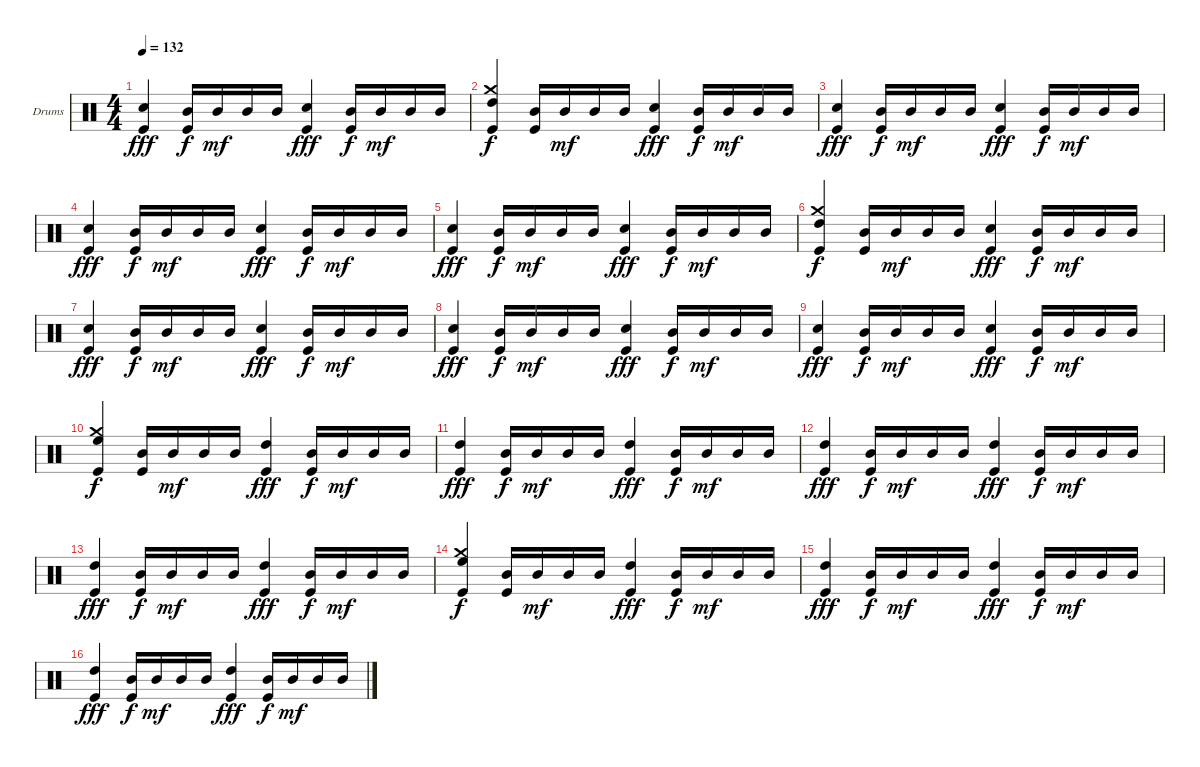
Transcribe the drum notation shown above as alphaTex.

\bracketExtendMode groupsimilarinstruments
\firstSystemTrackNameOrientation horizontal
\otherSystemsTrackNameOrientation horizontal
\track ("Larry" "Drums") {instrument percussion}
\staff {score}
\articulation defaults
\ts (4 4)
\tempo 132
\clef neutral
\ks c
("Snare (hit) 2" "Kick (hit)").4{dy fff} ("Mid Tom (hit)" "Kick (hit)").16{dy f} "Mid Tom (hit)".16{dy mf} "Mid Tom (hit)".16 "Mid Tom (hit)".16 ("Snare (hit) 2" "Kick (hit)").4{dy fff} ("Mid Tom (hit)" "Kick (hit)").16{dy f} "Mid Tom (hit)".16{dy mf} "Mid Tom (hit)".16 "Mid Tom (hit)".16 |
("Crash medium (hit)" "High Tom (hit)" "Kick (hit)").4{dy f} ("Mid Tom (hit)" "Kick (hit)").16 "Mid Tom (hit)".16{dy mf} "Mid Tom (hit)".16 "Mid Tom (hit)".16 ("Snare (hit) 2" "Kick (hit)").4{dy fff} ("Mid Tom (hit)" "Kick (hit)").16{dy f} "Mid Tom (hit)".16{dy mf} "Mid Tom (hit)".16 "Mid Tom (hit)".16 |
("Snare (hit) 2" "Kick (hit)").4{dy fff} ("Mid Tom (hit)" "Kick (hit)").16{dy f} "Mid Tom (hit)".16{dy mf} "Mid Tom (hit)".16 "Mid Tom (hit)".16 ("Snare (hit) 2" "Kick (hit)").4{dy fff} ("Mid Tom (hit)" "Kick (hit)").16{dy f} "Mid Tom (hit)".16{dy mf} "Mid Tom (hit)".16 "Mid Tom (hit)".16 |
("Snare (hit) 2" "Kick (hit)").4{dy fff} ("Mid Tom (hit)" "Kick (hit)").16{dy f} "Mid Tom (hit)".16{dy mf} "Mid Tom (hit)".16 "Mid Tom (hit)".16 ("Snare (hit) 2" "Kick (hit)").4{dy fff} ("Mid Tom (hit)" "Kick (hit)").16{dy f} "Mid Tom (hit)".16{dy mf} "Mid Tom (hit)".16 "Mid Tom (hit)".16 |
("Snare (hit) 2" "Kick (hit)").4{dy fff} ("Mid Tom (hit)" "Kick (hit)").16{dy f} "Mid Tom (hit)".16{dy mf} "Mid Tom (hit)".16 "Mid Tom (hit)".16 ("Snare (hit) 2" "Kick (hit)").4{dy fff} ("Mid Tom (hit)" "Kick (hit)").16{dy f} "Mid Tom (hit)".16{dy mf} "Mid Tom (hit)".16 "Mid Tom (hit)".16 |
("Crash medium (hit)" "High Tom (hit)" "Kick (hit)").4{dy f} ("Mid Tom (hit)" "Kick (hit)").16 "Mid Tom (hit)".16{dy mf} "Mid Tom (hit)".16 "Mid Tom (hit)".16 ("Snare (hit) 2" "Kick (hit)").4{dy fff} ("Mid Tom (hit)" "Kick (hit)").16{dy f} "Mid Tom (hit)".16{dy mf} "Mid Tom (hit)".16 "Mid Tom (hit)".16 |
("Snare (hit) 2" "Kick (hit)").4{dy fff} ("Mid Tom (hit)" "Kick (hit)").16{dy f} "Mid Tom (hit)".16{dy mf} "Mid Tom (hit)".16 "Mid Tom (hit)".16 ("Snare (hit) 2" "Kick (hit)").4{dy fff} ("Mid Tom (hit)" "Kick (hit)").16{dy f} "Mid Tom (hit)".16{dy mf} "Mid Tom (hit)".16 "Mid Tom (hit)".16 |
("Snare (hit) 2" "Kick (hit)").4{dy fff} ("Mid Tom (hit)" "Kick (hit)").16{dy f} "Mid Tom (hit)".16{dy mf} "Mid Tom (hit)".16 "Mid Tom (hit)".16 ("Snare (hit) 2" "Kick (hit)").4{dy fff} ("Mid Tom (hit)" "Kick (hit)").16{dy f} "Mid Tom (hit)".16{dy mf} "Mid Tom (hit)".16 "Mid Tom (hit)".16 |
("Snare (hit) 2" "Kick (hit)").4{dy fff} ("Mid Tom (hit)" "Kick (hit)").16{dy f} "Mid Tom (hit)".16{dy mf} "Mid Tom (hit)".16 "Mid Tom (hit)".16 ("Snare (hit) 2" "Kick (hit)").4{dy fff} ("Mid Tom (hit)" "Kick (hit)").16{dy f} "Mid Tom (hit)".16{dy mf} "Mid Tom (hit)".16 "Mid Tom (hit)".16 |
("Crash medium (hit)" "High Floor Tom (hit)" "Kick (hit)").4{dy f} ("Mid Tom (hit)" "Kick (hit)").16 "Mid Tom (hit)".16{dy mf} "Mid Tom (hit)".16 "Mid Tom (hit)".16 ("High Tom (hit)" "Kick (hit)").4{dy fff} ("Mid Tom (hit)" "Kick (hit)").16{dy f} "Mid Tom (hit)".16{dy mf} "Mid Tom (hit)".16 "Mid Tom (hit)".16 |
("High Tom (hit)" "Kick (hit)").4{dy fff} ("Mid Tom (hit)" "Kick (hit)").16{dy f} "Mid Tom (hit)".16{dy mf} "Mid Tom (hit)".16 "Mid Tom (hit)".16 ("High Tom (hit)" "Kick (hit)").4{dy fff} ("Mid Tom (hit)" "Kick (hit)").16{dy f} "Mid Tom (hit)".16{dy mf} "Mid Tom (hit)".16 "Mid Tom (hit)".16 |
("High Tom (hit)" "Kick (hit)").4{dy fff} ("Mid Tom (hit)" "Kick (hit)").16{dy f} "Mid Tom (hit)".16{dy mf} "Mid Tom (hit)".16 "Mid Tom (hit)".16 ("High Tom (hit)" "Kick (hit)").4{dy fff} ("Mid Tom (hit)" "Kick (hit)").16{dy f} "Mid Tom (hit)".16{dy mf} "Mid Tom (hit)".16 "Mid Tom (hit)".16 |
("High Tom (hit)" "Kick (hit)").4{dy fff} ("Mid Tom (hit)" "Kick (hit)").16{dy f} "Mid Tom (hit)".16{dy mf} "Mid Tom (hit)".16 "Mid Tom (hit)".16 ("High Tom (hit)" "Kick (hit)").4{dy fff} ("Mid Tom (hit)" "Kick (hit)").16{dy f} "Mid Tom (hit)".16{dy mf} "Mid Tom (hit)".16 "Mid Tom (hit)".16 |
("Crash medium (hit)" "High Floor Tom (hit)" "Kick (hit)").4{dy f} ("Mid Tom (hit)" "Kick (hit)").16 "Mid Tom (hit)".16{dy mf} "Mid Tom (hit)".16 "Mid Tom (hit)".16 ("High Tom (hit)" "Kick (hit)").4{dy fff} ("Mid Tom (hit)" "Kick (hit)").16{dy f} "Mid Tom (hit)".16{dy mf} "Mid Tom (hit)".16 "Mid Tom (hit)".16 |
("High Tom (hit)" "Kick (hit)").4{dy fff} ("Mid Tom (hit)" "Kick (hit)").16{dy f} "Mid Tom (hit)".16{dy mf} "Mid Tom (hit)".16 "Mid Tom (hit)".16 ("High Tom (hit)" "Kick (hit)").4{dy fff} ("Mid Tom (hit)" "Kick (hit)").16{dy f} "Mid Tom (hit)".16{dy mf} "Mid Tom (hit)".16 "Mid Tom (hit)".16 |
("High Tom (hit)" "Kick (hit)").4{dy fff} ("Mid Tom (hit)" "Kick (hit)").16{dy f} "Mid Tom (hit)".16{dy mf} "Mid Tom (hit)".16 "Mid Tom (hit)".16 ("High Tom (hit)" "Kick (hit)").4{dy fff} ("Mid Tom (hit)" "Kick (hit)").16{dy f} "Mid Tom (hit)".16{dy mf} "Mid Tom (hit)".16 "Mid Tom (hit)".16
